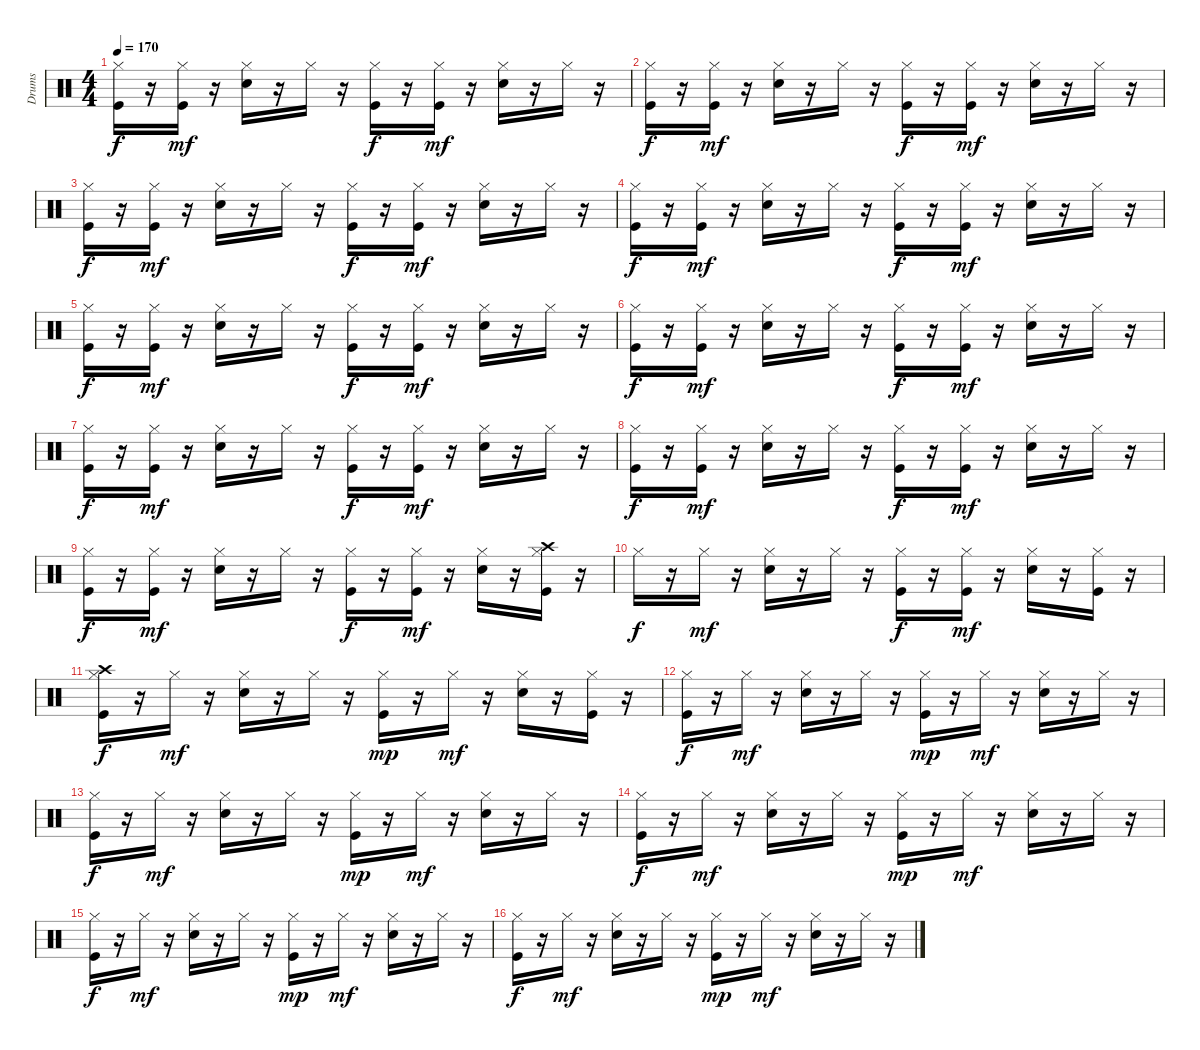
\track ("Drums" "Drums") {instrument percussion}
\staff {score}
\articulation defaults
\ts (4 4)
\tempo 170
\clef neutral
\ks c
("Hi-Hat (closed)" "Kick (hit)").16{dy f} r.16 ("Hi-Hat (closed)" "Kick (hit)").16{dy mf} r.16 ("Hi-Hat (closed)" "Electric Snare (hit)").16 r.16 "Hi-Hat (closed)".16 r.16 ("Hi-Hat (closed)" "Kick (hit)").16{dy f} r.16 ("Hi-Hat (closed)" "Kick (hit)").16{dy mf} r.16 ("Hi-Hat (closed)" "Electric Snare (hit)").16 r.16 "Hi-Hat (closed)".16 r.16 |
("Hi-Hat (closed)" "Kick (hit)").16{dy f} r.16 ("Hi-Hat (closed)" "Kick (hit)").16{dy mf} r.16 ("Hi-Hat (closed)" "Electric Snare (hit)").16 r.16 "Hi-Hat (closed)".16 r.16 ("Hi-Hat (closed)" "Kick (hit)").16{dy f} r.16 ("Hi-Hat (closed)" "Kick (hit)").16{dy mf} r.16 ("Hi-Hat (closed)" "Electric Snare (hit)").16 r.16 "Hi-Hat (closed)".16 r.16 |
("Hi-Hat (closed)" "Kick (hit)").16{dy f} r.16 ("Hi-Hat (closed)" "Kick (hit)").16{dy mf} r.16 ("Hi-Hat (closed)" "Electric Snare (hit)").16 r.16 "Hi-Hat (closed)".16 r.16 ("Hi-Hat (closed)" "Kick (hit)").16{dy f} r.16 ("Hi-Hat (closed)" "Kick (hit)").16{dy mf} r.16 ("Hi-Hat (closed)" "Electric Snare (hit)").16 r.16 "Hi-Hat (closed)".16 r.16 |
("Hi-Hat (closed)" "Kick (hit)").16{dy f} r.16 ("Hi-Hat (closed)" "Kick (hit)").16{dy mf} r.16 ("Hi-Hat (closed)" "Electric Snare (hit)").16 r.16 "Hi-Hat (closed)".16 r.16 ("Hi-Hat (closed)" "Kick (hit)").16{dy f} r.16 ("Hi-Hat (closed)" "Kick (hit)").16{dy mf} r.16 ("Hi-Hat (closed)" "Electric Snare (hit)").16 r.16 "Hi-Hat (closed)".16 r.16 |
("Hi-Hat (closed)" "Kick (hit)").16{dy f} r.16 ("Hi-Hat (closed)" "Kick (hit)").16{dy mf} r.16 ("Hi-Hat (closed)" "Electric Snare (hit)").16 r.16 "Hi-Hat (closed)".16 r.16 ("Hi-Hat (closed)" "Kick (hit)").16{dy f} r.16 ("Hi-Hat (closed)" "Kick (hit)").16{dy mf} r.16 ("Hi-Hat (closed)" "Electric Snare (hit)").16 r.16 "Hi-Hat (closed)".16 r.16 |
("Hi-Hat (closed)" "Kick (hit)").16{dy f} r.16 ("Hi-Hat (closed)" "Kick (hit)").16{dy mf} r.16 ("Hi-Hat (closed)" "Electric Snare (hit)").16 r.16 "Hi-Hat (closed)".16 r.16 ("Hi-Hat (closed)" "Kick (hit)").16{dy f} r.16 ("Hi-Hat (closed)" "Kick (hit)").16{dy mf} r.16 ("Hi-Hat (closed)" "Electric Snare (hit)").16 r.16 "Hi-Hat (closed)".16 r.16 |
("Hi-Hat (closed)" "Kick (hit)").16{dy f} r.16 ("Hi-Hat (closed)" "Kick (hit)").16{dy mf} r.16 ("Hi-Hat (closed)" "Electric Snare (hit)").16 r.16 "Hi-Hat (closed)".16 r.16 ("Hi-Hat (closed)" "Kick (hit)").16{dy f} r.16 ("Hi-Hat (closed)" "Kick (hit)").16{dy mf} r.16 ("Hi-Hat (closed)" "Electric Snare (hit)").16 r.16 "Hi-Hat (closed)".16 r.16 |
("Hi-Hat (closed)" "Kick (hit)").16{dy f} r.16 ("Hi-Hat (closed)" "Kick (hit)").16{dy mf} r.16 ("Hi-Hat (closed)" "Electric Snare (hit)").16 r.16 "Hi-Hat (closed)".16 r.16 ("Hi-Hat (closed)" "Kick (hit)").16{dy f} r.16 ("Hi-Hat (closed)" "Kick (hit)").16{dy mf} r.16 ("Hi-Hat (closed)" "Electric Snare (hit)").16 r.16 "Hi-Hat (closed)".16 r.16 |
("Hi-Hat (closed)" "Kick (hit)").16{dy f} r.16 ("Hi-Hat (closed)" "Kick (hit)").16{dy mf} r.16 ("Hi-Hat (closed)" "Electric Snare (hit)").16 r.16 "Hi-Hat (closed)".16 r.16 ("Hi-Hat (closed)" "Kick (hit)").16{dy f} r.16 ("Hi-Hat (closed)" "Kick (hit)").16{dy mf} r.16 ("Hi-Hat (closed)" "Electric Snare (hit)").16 r.16 ("Hi-Hat (closed)" "Crash high (hit)" "Kick (hit)").16 r.16 |
"Hi-Hat (closed)".16{dy f} r.16 "Hi-Hat (closed)".16{dy mf} r.16 ("Hi-Hat (closed)" "Electric Snare (hit)").16 r.16 "Hi-Hat (closed)".16 r.16 ("Hi-Hat (closed)" "Kick (hit)").16{dy f} r.16 ("Hi-Hat (closed)" "Kick (hit)").16{dy mf} r.16 ("Hi-Hat (closed)" "Electric Snare (hit)").16 r.16 ("Hi-Hat (closed)" "Kick (hit)").16 r.16 |
("Hi-Hat (closed)" "Crash high (hit)" "Kick (hit)").16{dy f} r.16 "Hi-Hat (closed)".16{dy mf} r.16 ("Hi-Hat (closed)" "Electric Snare (hit)").16 r.16 "Hi-Hat (closed)".16 r.16 ("Hi-Hat (closed)" "Kick (hit)").16{dy mp} r.16 "Hi-Hat (closed)".16{dy mf} r.16 ("Hi-Hat (closed)" "Electric Snare (hit)").16 r.16 ("Hi-Hat (closed)" "Kick (hit)").16 r.16 |
("Hi-Hat (closed)" "Kick (hit)").16{dy f} r.16 "Hi-Hat (closed)".16{dy mf} r.16 ("Hi-Hat (closed)" "Electric Snare (hit)").16 r.16 "Hi-Hat (closed)".16 r.16 ("Hi-Hat (closed)" "Kick (hit)").16{dy mp} r.16 "Hi-Hat (closed)".16{dy mf} r.16 ("Hi-Hat (closed)" "Electric Snare (hit)").16 r.16 "Hi-Hat (closed)".16 r.16 |
("Hi-Hat (closed)" "Kick (hit)").16{dy f} r.16 "Hi-Hat (closed)".16{dy mf} r.16 ("Hi-Hat (closed)" "Electric Snare (hit)").16 r.16 "Hi-Hat (closed)".16 r.16 ("Hi-Hat (closed)" "Kick (hit)").16{dy mp} r.16 "Hi-Hat (closed)".16{dy mf} r.16 ("Hi-Hat (closed)" "Electric Snare (hit)").16 r.16 "Hi-Hat (closed)".16 r.16 |
("Hi-Hat (closed)" "Kick (hit)").16{dy f} r.16 "Hi-Hat (closed)".16{dy mf} r.16 ("Hi-Hat (closed)" "Electric Snare (hit)").16 r.16 "Hi-Hat (closed)".16 r.16 ("Hi-Hat (closed)" "Kick (hit)").16{dy mp} r.16 "Hi-Hat (closed)".16{dy mf} r.16 ("Hi-Hat (closed)" "Electric Snare (hit)").16 r.16 "Hi-Hat (closed)".16 r.16 |
("Hi-Hat (closed)" "Kick (hit)").16{dy f} r.16 "Hi-Hat (closed)".16{dy mf} r.16 ("Hi-Hat (closed)" "Electric Snare (hit)").16 r.16 "Hi-Hat (closed)".16 r.16 ("Hi-Hat (closed)" "Kick (hit)").16{dy mp} r.16 "Hi-Hat (closed)".16{dy mf} r.16 ("Hi-Hat (closed)" "Electric Snare (hit)").16 r.16 "Hi-Hat (closed)".16 r.16 |
("Hi-Hat (closed)" "Kick (hit)").16{dy f} r.16 "Hi-Hat (closed)".16{dy mf} r.16 ("Hi-Hat (closed)" "Electric Snare (hit)").16 r.16 "Hi-Hat (closed)".16 r.16 ("Hi-Hat (closed)" "Kick (hit)").16{dy mp} r.16 "Hi-Hat (closed)".16{dy mf} r.16 ("Hi-Hat (closed)" "Electric Snare (hit)").16 r.16 "Hi-Hat (closed)".16 r.16
